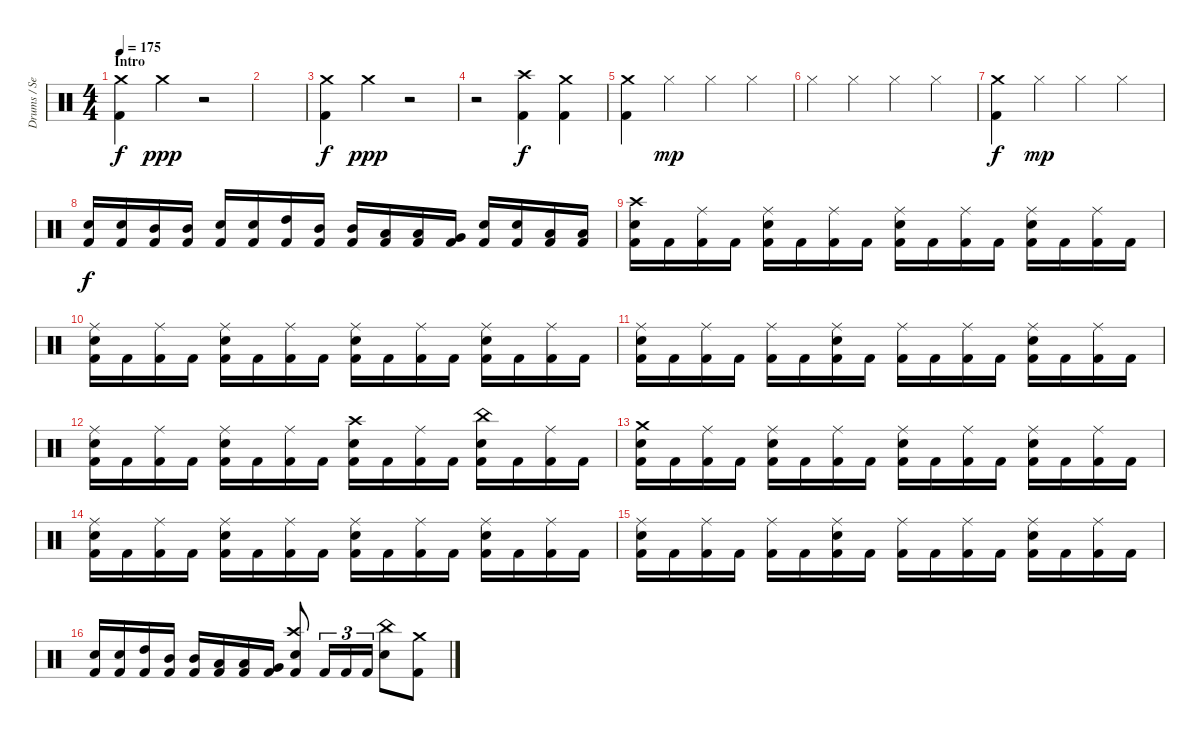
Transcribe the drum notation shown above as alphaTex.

\track ("Drums / Sean" "Drums / Se") {instrument percussion}
\staff {score}
\articulation defaults
\ts (4 4)
\section ("" "Intro")
\tempo 175
\clef neutral
\ks c
("Crash medium (hit)" "Kick (hit) 2").4{dy f} "Crash medium (hit)".4{dy ppp} r.2 |
|
("Crash medium (hit)" "Kick (hit) 2").4{dy f} "Crash medium (hit)".4{dy ppp} r.2 |
r.2 ("Crash high (hit)" "Kick (hit) 2").4{dy f} ("Crash medium (hit)" "Kick (hit) 2").4 |
("Crash medium (hit)" "Kick (hit) 2").4 "Hi-Hat (closed)".4{dy mp} "Hi-Hat (closed)".4 "Hi-Hat (closed)".4 |
"Hi-Hat (closed)".4 "Hi-Hat (closed)".4 "Hi-Hat (closed)".4 "Hi-Hat (closed)".4 |
("Crash medium (hit)" "Kick (hit) 2").4{dy f} "Hi-Hat (closed)".4{dy mp} "Hi-Hat (closed)".4 "Hi-Hat (closed)".4 |
("Electric Snare (hit)" "Kick (hit) 2").16{dy f} ("Electric Snare (hit)" "Kick (hit) 2").16 ("Mid Tom (hit)" "Kick (hit) 2").16 ("Mid Tom (hit)" "Kick (hit) 2").16 ("Electric Snare (hit)" "Kick (hit) 2").16 ("Electric Snare (hit)" "Kick (hit) 2").16 ("High Tom (hit)" "Kick (hit) 2").16 ("Mid Tom (hit)" "Kick (hit) 2").16 ("Mid Tom (hit)" "Kick (hit) 2").16 ("Low Tom (hit)" "Kick (hit) 2").16 ("Low Tom (hit)" "Kick (hit) 2").16 ("Very Low Tom (hit)" "Kick (hit) 2").16 ("Electric Snare (hit)" "Kick (hit) 2").16 ("Electric Snare (hit)" "Kick (hit) 2").16 ("Low Tom (hit)" "Kick (hit) 2").16 ("Low Tom (hit)" "Kick (hit) 2").16 |
("Crash high (hit)" "Electric Snare (hit)" "Kick (hit) 2").16 "Kick (hit) 2".16 ("Ride (middle)" "Kick (hit) 2").16 "Kick (hit) 2".16 ("Ride (middle)" "Electric Snare (hit)" "Kick (hit) 2").16 "Kick (hit) 2".16 ("Ride (middle)" "Kick (hit) 2").16 "Kick (hit) 2".16 ("Ride (middle)" "Electric Snare (hit)" "Kick (hit) 2").16 "Kick (hit) 2".16 ("Ride (middle)" "Kick (hit) 2").16 "Kick (hit) 2".16 ("Ride (middle)" "Electric Snare (hit)" "Kick (hit) 2").16 "Kick (hit) 2".16 ("Ride (middle)" "Kick (hit) 2").16 "Kick (hit) 2".16 |
("Ride (middle)" "Electric Snare (hit)" "Kick (hit) 2").16 "Kick (hit) 2".16 ("Ride (middle)" "Kick (hit) 2").16 "Kick (hit) 2".16 ("Ride (middle)" "Electric Snare (hit)" "Kick (hit) 2").16 "Kick (hit) 2".16 ("Ride (middle)" "Kick (hit) 2").16 "Kick (hit) 2".16 ("Ride (middle)" "Electric Snare (hit)" "Kick (hit) 2").16 "Kick (hit) 2".16 ("Ride (middle)" "Kick (hit) 2").16 "Kick (hit) 2".16 ("Ride (middle)" "Electric Snare (hit)" "Kick (hit) 2").16 "Kick (hit) 2".16 ("Ride (middle)" "Kick (hit) 2").16 "Kick (hit) 2".16 |
("Ride (middle)" "Electric Snare (hit)" "Kick (hit) 2").16 "Kick (hit) 2".16 ("Ride (middle)" "Kick (hit) 2").16 "Kick (hit) 2".16 ("Ride (middle)" "Kick (hit) 2").16 "Kick (hit) 2".16 ("Ride (middle)" "Electric Snare (hit)" "Kick (hit) 2").16 "Kick (hit) 2".16 ("Ride (middle)" "Kick (hit) 2").16 "Kick (hit) 2".16 ("Ride (middle)" "Kick (hit) 2").16 "Kick (hit) 2".16 ("Ride (middle)" "Electric Snare (hit)" "Kick (hit) 2").16 "Kick (hit) 2".16 ("Ride (middle)" "Kick (hit) 2").16 "Kick (hit) 2".16 |
("Ride (middle)" "Electric Snare (hit)" "Kick (hit) 2").16 "Kick (hit) 2".16 ("Ride (middle)" "Kick (hit) 2").16 "Kick (hit) 2".16 ("Ride (middle)" "Electric Snare (hit)" "Kick (hit) 2").16 "Kick (hit) 2".16 ("Ride (middle)" "Kick (hit) 2").16 "Kick (hit) 2".16 ("Crash high (hit)" "Electric Snare (hit)" "Kick (hit) 2").16 "Kick (hit) 2".16 ("Ride (middle)" "Kick (hit) 2").16 "Kick (hit) 2".16 ("China (hit)" "Electric Snare (hit)" "Kick (hit) 2").16 "Kick (hit) 2".16 ("Ride (middle)" "Kick (hit) 2").16 "Kick (hit) 2".16 |
("Crash medium (hit)" "Electric Snare (hit)" "Kick (hit) 2").16 "Kick (hit) 2".16 ("Ride (middle)" "Kick (hit) 2").16 "Kick (hit) 2".16 ("Ride (middle)" "Electric Snare (hit)" "Kick (hit) 2").16 "Kick (hit) 2".16 ("Ride (middle)" "Kick (hit) 2").16 "Kick (hit) 2".16 ("Ride (middle)" "Electric Snare (hit)" "Kick (hit) 2").16 "Kick (hit) 2".16 ("Ride (middle)" "Kick (hit) 2").16 "Kick (hit) 2".16 ("Ride (middle)" "Electric Snare (hit)" "Kick (hit) 2").16 "Kick (hit) 2".16 ("Ride (middle)" "Kick (hit) 2").16 "Kick (hit) 2".16 |
("Ride (middle)" "Electric Snare (hit)" "Kick (hit) 2").16 "Kick (hit) 2".16 ("Ride (middle)" "Kick (hit) 2").16 "Kick (hit) 2".16 ("Ride (middle)" "Electric Snare (hit)" "Kick (hit) 2").16 "Kick (hit) 2".16 ("Ride (middle)" "Kick (hit) 2").16 "Kick (hit) 2".16 ("Ride (middle)" "Electric Snare (hit)" "Kick (hit) 2").16 "Kick (hit) 2".16 ("Ride (middle)" "Kick (hit) 2").16 "Kick (hit) 2".16 ("Ride (middle)" "Electric Snare (hit)" "Kick (hit) 2").16 "Kick (hit) 2".16 ("Ride (middle)" "Kick (hit) 2").16 "Kick (hit) 2".16 |
("Ride (middle)" "Electric Snare (hit)" "Kick (hit) 2").16 "Kick (hit) 2".16 ("Ride (middle)" "Kick (hit) 2").16 "Kick (hit) 2".16 ("Ride (middle)" "Kick (hit) 2").16 "Kick (hit) 2".16 ("Ride (middle)" "Electric Snare (hit)" "Kick (hit) 2").16 "Kick (hit) 2".16 ("Ride (middle)" "Kick (hit) 2").16 "Kick (hit) 2".16 ("Ride (middle)" "Kick (hit) 2").16 "Kick (hit) 2".16 ("Ride (middle)" "Electric Snare (hit)" "Kick (hit) 2").16 "Kick (hit) 2".16 ("Ride (middle)" "Kick (hit) 2").16 "Kick (hit) 2".16 |
("Electric Snare (hit)" "Kick (hit) 2").16 ("Electric Snare (hit)" "Kick (hit) 2").16 ("High Tom (hit)" "Kick (hit) 2").16 ("Mid Tom (hit)" "Kick (hit) 2").16 ("Mid Tom (hit)" "Kick (hit) 2").16 ("Low Tom (hit)" "Kick (hit) 2").16 ("Low Tom (hit)" "Kick (hit) 2").16 ("Very Low Tom (hit)" "Kick (hit) 2").16 ("Crash high (hit)" "Electric Snare (hit)" "Kick (hit) 2").8 "Kick (hit) 2".16{tu (3 2)} "Kick (hit) 2".16{tu (3 2)} "Kick (hit) 2".16{tu (3 2)} ("China (hit)" "Electric Snare (hit)").8 ("Crash medium (hit)" "Kick (hit) 2").8
